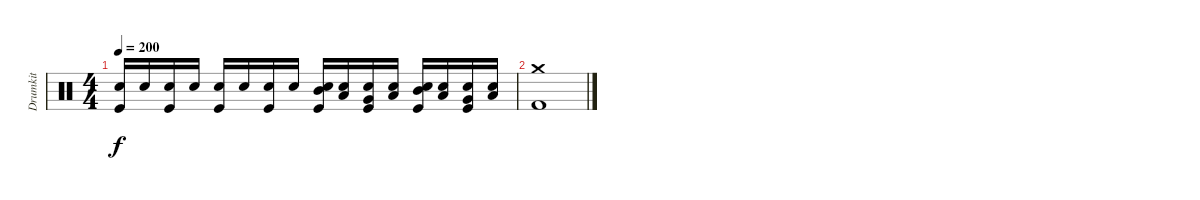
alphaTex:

\track ("Drumkit" "Drumkit") {instrument percussion}
\staff {score}
\articulation defaults
\ts (4 4)
\tempo 200
\clef neutral
\ks c
("Kick (hit)" "Electric Snare (hit)").16{dy f} "Electric Snare (hit)".16 ("Kick (hit)" "Electric Snare (hit)").16 "Electric Snare (hit)".16 ("Kick (hit)" "Electric Snare (hit)").16 "Electric Snare (hit)".16 ("Kick (hit)" "Electric Snare (hit)").16 "Electric Snare (hit)".16 ("Kick (hit)" "Electric Snare (hit)" "Mid Tom (hit)").16 ("Electric Snare (hit)" "Low Tom (hit)").16 ("Kick (hit)" "Electric Snare (hit)" "Very Low Tom (hit)").16 ("Electric Snare (hit)" "Low Floor Tom (hit)").16 ("Kick (hit)" "Electric Snare (hit)" "Mid Tom (hit)").16 ("Electric Snare (hit)" "Low Tom (hit)").16 ("Kick (hit)" "Electric Snare (hit)" "Very Low Tom (hit)").16 ("Electric Snare (hit)" "Low Floor Tom (hit)").16 |
("Crash medium (hit)" "Kick (hit) 2").1
